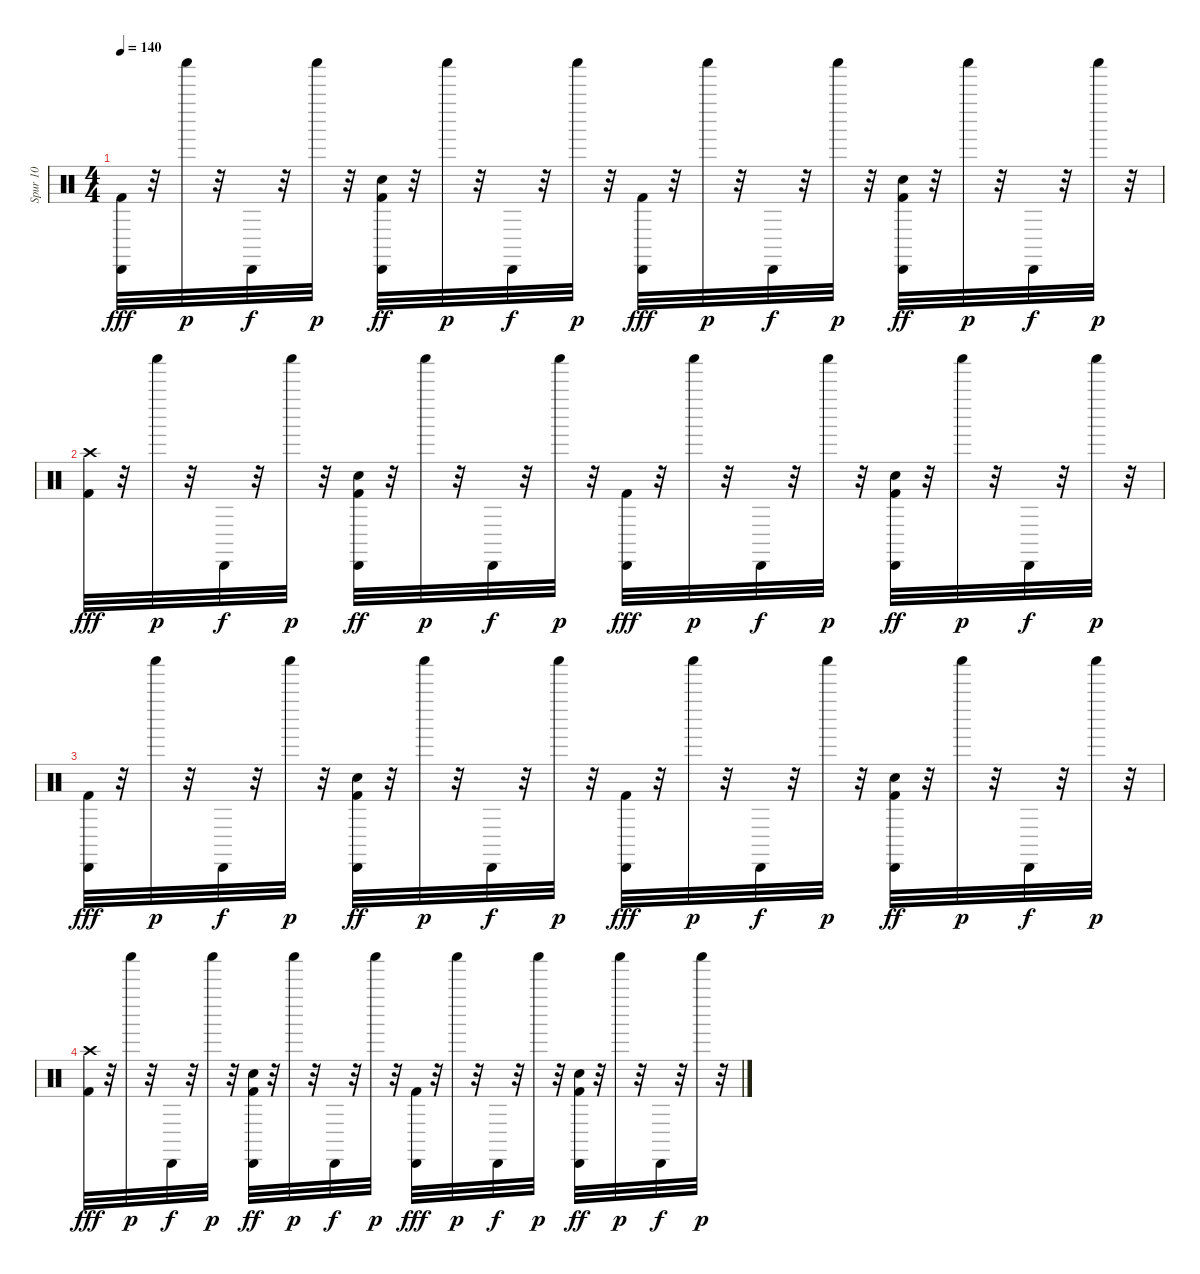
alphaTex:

\track ("Spur 10" "Spur 10") {instrument percussion}
\staff {score}
\articulation defaults
\ts (4 4)
\tempo 140
\clef neutral
\ks c
("Cabasa (hit)" "Kick (hit) 2").32{dy fff} r.32 "Shaker (hit)".32{dy p} r.32 "Cabasa (hit)".32{dy f} r.32 "Shaker (hit)".32{dy p} r.32 ("Snare (hit) 2" "Cabasa (hit)" "Kick (hit) 2").32{dy ff} r.32 "Shaker (hit)".32{dy p} r.32 "Cabasa (hit)".32{dy f} r.32 "Shaker (hit)".32{dy p} r.32 ("Cabasa (hit)" "Kick (hit) 2").32{dy fff} r.32 "Shaker (hit)".32{dy p} r.32 "Cabasa (hit)".32{dy f} r.32 "Shaker (hit)".32{dy p} r.32 ("Snare (hit) 2" "Cabasa (hit)" "Kick (hit) 2").32{dy ff} r.32 "Shaker (hit)".32{dy p} r.32 "Cabasa (hit)".32{dy f} r.32 "Shaker (hit)".32{dy p} r.32 |
("Crash high (hit)" "Kick (hit) 2").32{dy fff} r.32 "Shaker (hit)".32{dy p} r.32 "Cabasa (hit)".32{dy f} r.32 "Shaker (hit)".32{dy p} r.32 ("Snare (hit) 2" "Cabasa (hit)" "Kick (hit) 2").32{dy ff} r.32 "Shaker (hit)".32{dy p} r.32 "Cabasa (hit)".32{dy f} r.32 "Shaker (hit)".32{dy p} r.32 ("Cabasa (hit)" "Kick (hit) 2").32{dy fff} r.32 "Shaker (hit)".32{dy p} r.32 "Cabasa (hit)".32{dy f} r.32 "Shaker (hit)".32{dy p} r.32 ("Snare (hit) 2" "Cabasa (hit)" "Kick (hit) 2").32{dy ff} r.32 "Shaker (hit)".32{dy p} r.32 "Cabasa (hit)".32{dy f} r.32 "Shaker (hit)".32{dy p} r.32 |
("Cabasa (hit)" "Kick (hit) 2").32{dy fff} r.32 "Shaker (hit)".32{dy p} r.32 "Cabasa (hit)".32{dy f} r.32 "Shaker (hit)".32{dy p} r.32 ("Snare (hit) 2" "Cabasa (hit)" "Kick (hit) 2").32{dy ff} r.32 "Shaker (hit)".32{dy p} r.32 "Cabasa (hit)".32{dy f} r.32 "Shaker (hit)".32{dy p} r.32 ("Cabasa (hit)" "Kick (hit) 2").32{dy fff} r.32 "Shaker (hit)".32{dy p} r.32 "Cabasa (hit)".32{dy f} r.32 "Shaker (hit)".32{dy p} r.32 ("Snare (hit) 2" "Cabasa (hit)" "Kick (hit) 2").32{dy ff} r.32 "Shaker (hit)".32{dy p} r.32 "Cabasa (hit)".32{dy f} r.32 "Shaker (hit)".32{dy p} r.32 |
("Crash high (hit)" "Kick (hit) 2").32{dy fff} r.32 "Shaker (hit)".32{dy p} r.32 "Cabasa (hit)".32{dy f} r.32 "Shaker (hit)".32{dy p} r.32 ("Snare (hit) 2" "Cabasa (hit)" "Kick (hit) 2").32{dy ff} r.32 "Shaker (hit)".32{dy p} r.32 "Cabasa (hit)".32{dy f} r.32 "Shaker (hit)".32{dy p} r.32 ("Cabasa (hit)" "Kick (hit) 2").32{dy fff} r.32 "Shaker (hit)".32{dy p} r.32 "Cabasa (hit)".32{dy f} r.32 "Shaker (hit)".32{dy p} r.32 ("Snare (hit) 2" "Cabasa (hit)" "Kick (hit) 2").32{dy ff} r.32 "Shaker (hit)".32{dy p} r.32 "Cabasa (hit)".32{dy f} r.32 "Shaker (hit)".32{dy p} r.32
